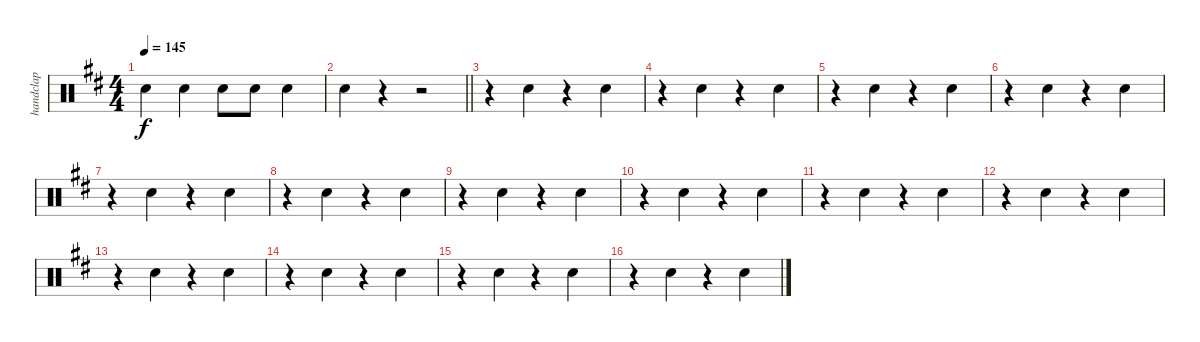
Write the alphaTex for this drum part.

\track ("handclap" "handclap") {instrument percussion}
\staff {score}
\articulation defaults
\ts (4 4)
\tempo 145
\clef neutral
\ks d "Hand Clap (hit)".4{dy f} "Hand Clap (hit)".4 "Hand Clap (hit)".8 "Hand Clap (hit)".8 "Hand Clap (hit)".4
|
\barLineRight lightlight "Hand Clap (hit)".4
r.4 r.2 |
r.4 "Hand Clap (hit)".4 r.4 "Hand Clap (hit)".4 |
r.4 "Hand Clap (hit)".4 r.4 "Hand Clap (hit)".4 |
r.4 "Hand Clap (hit)".4 r.4 "Hand Clap (hit)".4 |
r.4 "Hand Clap (hit)".4 r.4 "Hand Clap (hit)".4 |
r.4 "Hand Clap (hit)".4 r.4 "Hand Clap (hit)".4 |
r.4 "Hand Clap (hit)".4 r.4 "Hand Clap (hit)".4 |
r.4 "Hand Clap (hit)".4 r.4 "Hand Clap (hit)".4 |
r.4 "Hand Clap (hit)".4 r.4 "Hand Clap (hit)".4 |
r.4 "Hand Clap (hit)".4 r.4 "Hand Clap (hit)".4 |
r.4 "Hand Clap (hit)".4 r.4 "Hand Clap (hit)".4 |
r.4 "Hand Clap (hit)".4 r.4 "Hand Clap (hit)".4 |
r.4 "Hand Clap (hit)".4 r.4 "Hand Clap (hit)".4 |
r.4 "Hand Clap (hit)".4 r.4 "Hand Clap (hit)".4 |
r.4 "Hand Clap (hit)".4 r.4 "Hand Clap (hit)".4
